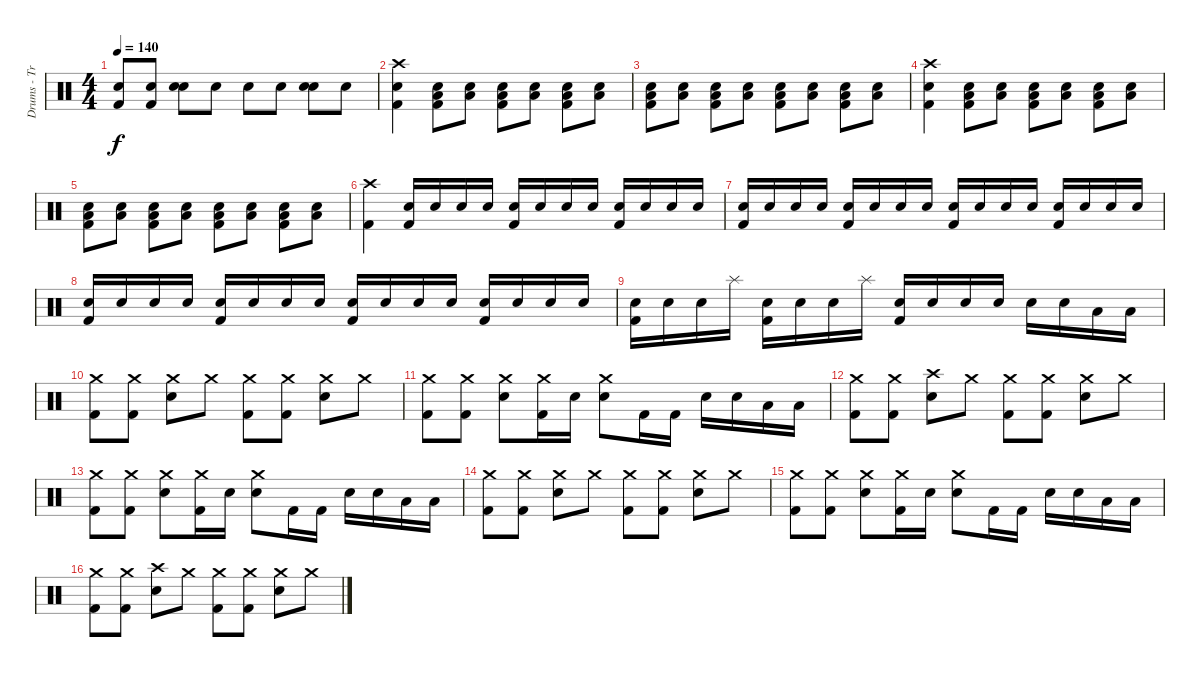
\track ("Drums - Travis Barker" "Drums - Tr") {instrument percussion}
\staff {score}
\articulation defaults
\ts (4 4)
\tempo 140
\clef neutral
\ks c
("Snare (hit) 2" "Kick (hit) 2").8{dy f} ("Snare (hit) 2" "Kick (hit) 2").8 ("Snare (hit) 2" "Snare (hit) 2").8 "Snare (hit) 2".8 "Snare (hit) 2".8 "Snare (hit) 2".8 ("Snare (hit) 2" "Snare (hit) 2").8 "Snare (hit) 2".8 |
("Crash high (hit)" "Snare (hit) 2" "Kick (hit) 2").4 ("Low Floor Tom (hit)" "Snare (hit) 2" "Kick (hit) 2").8 ("Low Floor Tom (hit)" "Snare (hit) 2").8 ("Low Floor Tom (hit)" "Snare (hit) 2" "Kick (hit) 2").8 ("Low Floor Tom (hit)" "Snare (hit) 2").8 ("Low Floor Tom (hit)" "Snare (hit) 2" "Kick (hit) 2").8 ("Low Floor Tom (hit)" "Snare (hit) 2").8 |
("Low Floor Tom (hit)" "Snare (hit) 2" "Kick (hit) 2").8 ("Low Floor Tom (hit)" "Snare (hit) 2").8 ("Low Floor Tom (hit)" "Snare (hit) 2" "Kick (hit) 2").8 ("Low Floor Tom (hit)" "Snare (hit) 2").8 ("Low Floor Tom (hit)" "Snare (hit) 2" "Kick (hit) 2").8 ("Low Floor Tom (hit)" "Snare (hit) 2").8 ("Low Floor Tom (hit)" "Snare (hit) 2" "Kick (hit) 2").8 ("Low Floor Tom (hit)" "Snare (hit) 2").8 |
("Crash high (hit)" "Snare (hit) 2" "Kick (hit) 2").4 ("Low Floor Tom (hit)" "Snare (hit) 2" "Kick (hit) 2").8 ("Low Floor Tom (hit)" "Snare (hit) 2").8 ("Low Floor Tom (hit)" "Snare (hit) 2" "Kick (hit) 2").8 ("Low Floor Tom (hit)" "Snare (hit) 2").8 ("Low Floor Tom (hit)" "Snare (hit) 2" "Kick (hit) 2").8 ("Low Floor Tom (hit)" "Snare (hit) 2").8 |
("Low Floor Tom (hit)" "Snare (hit) 2" "Kick (hit) 2").8 ("Low Floor Tom (hit)" "Snare (hit) 2").8 ("Low Floor Tom (hit)" "Snare (hit) 2" "Kick (hit) 2").8 ("Low Floor Tom (hit)" "Snare (hit) 2").8 ("Low Floor Tom (hit)" "Snare (hit) 2" "Kick (hit) 2").8 ("Low Floor Tom (hit)" "Snare (hit) 2").8 ("Low Floor Tom (hit)" "Snare (hit) 2" "Kick (hit) 2").8 ("Low Floor Tom (hit)" "Snare (hit) 2").8 |
("Crash high (hit)" "Kick (hit) 2").4 ("Snare (hit) 2" "Kick (hit) 2").16 "Snare (hit) 2".16 "Snare (hit) 2".16 "Snare (hit) 2".16 ("Snare (hit) 2" "Kick (hit) 2").16 "Snare (hit) 2".16 "Snare (hit) 2".16 "Snare (hit) 2".16 ("Snare (hit) 2" "Kick (hit) 2").16 "Snare (hit) 2".16 "Snare (hit) 2".16 "Snare (hit) 2".16 |
("Snare (hit) 2" "Kick (hit) 2").16 "Snare (hit) 2".16 "Snare (hit) 2".16 "Snare (hit) 2".16 ("Snare (hit) 2" "Kick (hit) 2").16 "Snare (hit) 2".16 "Snare (hit) 2".16 "Snare (hit) 2".16 ("Snare (hit) 2" "Kick (hit) 2").16 "Snare (hit) 2".16 "Snare (hit) 2".16 "Snare (hit) 2".16 ("Snare (hit) 2" "Kick (hit) 2").16 "Snare (hit) 2".16 "Snare (hit) 2".16 "Snare (hit) 2".16 |
("Snare (hit) 2" "Kick (hit) 2").16 "Snare (hit) 2".16 "Snare (hit) 2".16 "Snare (hit) 2".16 ("Snare (hit) 2" "Kick (hit) 2").16 "Snare (hit) 2".16 "Snare (hit) 2".16 "Snare (hit) 2".16 ("Snare (hit) 2" "Kick (hit) 2").16 "Snare (hit) 2".16 "Snare (hit) 2".16 "Snare (hit) 2".16 ("Snare (hit) 2" "Kick (hit) 2").16 "Snare (hit) 2".16 "Snare (hit) 2".16 "Snare (hit) 2".16 |
("Snare (hit) 2" "Kick (hit) 2").16 "Snare (hit) 2".16 "Snare (hit) 2".16 "Splash (hit)".16 ("Snare (hit) 2" "Kick (hit) 2").16 "Snare (hit) 2".16 "Snare (hit) 2".16 "Splash (hit)".16 ("Snare (hit) 2" "Kick (hit) 2").16 "Snare (hit) 2".16 "Snare (hit) 2".16 "Snare (hit) 2".16 "Snare (hit) 2".16 "Snare (hit) 2".16 "Low Tom (hit)".16 "Low Tom (hit)".16 |
("Crash medium (hit)" "Kick (hit) 2").8 ("Crash medium (hit)" "Kick (hit) 2").8 ("Crash medium (hit)" "Snare (hit) 2").8 "Crash medium (hit)".8 ("Crash medium (hit)" "Kick (hit) 2").8 ("Crash medium (hit)" "Kick (hit) 2").8 ("Crash medium (hit)" "Snare (hit) 2").8 "Crash medium (hit)".8 |
("Crash medium (hit)" "Kick (hit) 2").8 ("Crash medium (hit)" "Kick (hit) 2").8 ("Crash medium (hit)" "Snare (hit) 2").8 ("Crash medium (hit)" "Kick (hit) 2").16 "Snare (hit) 2".16 ("Crash medium (hit)" "Snare (hit) 2").8 "Kick (hit) 2".16 "Kick (hit) 2".16 "Snare (hit) 2".16 "Snare (hit) 2".16 "Low Tom (hit)".16 "Low Tom (hit)".16 |
("Crash medium (hit)" "Kick (hit) 2").8 ("Crash medium (hit)" "Kick (hit) 2").8 ("Crash high (hit)" "Snare (hit) 2").8 "Crash medium (hit)".8 ("Crash medium (hit)" "Kick (hit) 2").8 ("Crash medium (hit)" "Kick (hit) 2").8 ("Crash medium (hit)" "Snare (hit) 2").8 "Crash medium (hit)".8 |
("Crash medium (hit)" "Kick (hit) 2").8 ("Crash medium (hit)" "Kick (hit) 2").8 ("Crash medium (hit)" "Snare (hit) 2").8 ("Crash medium (hit)" "Kick (hit) 2").16 "Snare (hit) 2".16 ("Crash medium (hit)" "Snare (hit) 2").8 "Kick (hit) 2".16 "Kick (hit) 2".16 "Snare (hit) 2".16 "Snare (hit) 2".16 "Low Tom (hit)".16 "Low Tom (hit)".16 |
("Crash medium (hit)" "Kick (hit) 2").8 ("Crash medium (hit)" "Kick (hit) 2").8 ("Crash medium (hit)" "Snare (hit) 2").8 "Crash medium (hit)".8 ("Crash medium (hit)" "Kick (hit) 2").8 ("Crash medium (hit)" "Kick (hit) 2").8 ("Crash medium (hit)" "Snare (hit) 2").8 "Crash medium (hit)".8 |
("Crash medium (hit)" "Kick (hit) 2").8 ("Crash medium (hit)" "Kick (hit) 2").8 ("Crash medium (hit)" "Snare (hit) 2").8 ("Crash medium (hit)" "Kick (hit) 2").16 "Snare (hit) 2".16 ("Crash medium (hit)" "Snare (hit) 2").8 "Kick (hit) 2".16 "Kick (hit) 2".16 "Snare (hit) 2".16 "Snare (hit) 2".16 "Low Tom (hit)".16 "Low Tom (hit)".16 |
("Crash medium (hit)" "Kick (hit) 2").8 ("Crash medium (hit)" "Kick (hit) 2").8 ("Crash high (hit)" "Snare (hit) 2").8 "Crash medium (hit)".8 ("Crash medium (hit)" "Kick (hit) 2").8 ("Crash medium (hit)" "Kick (hit) 2").8 ("Crash medium (hit)" "Snare (hit) 2").8 "Crash medium (hit)".8
